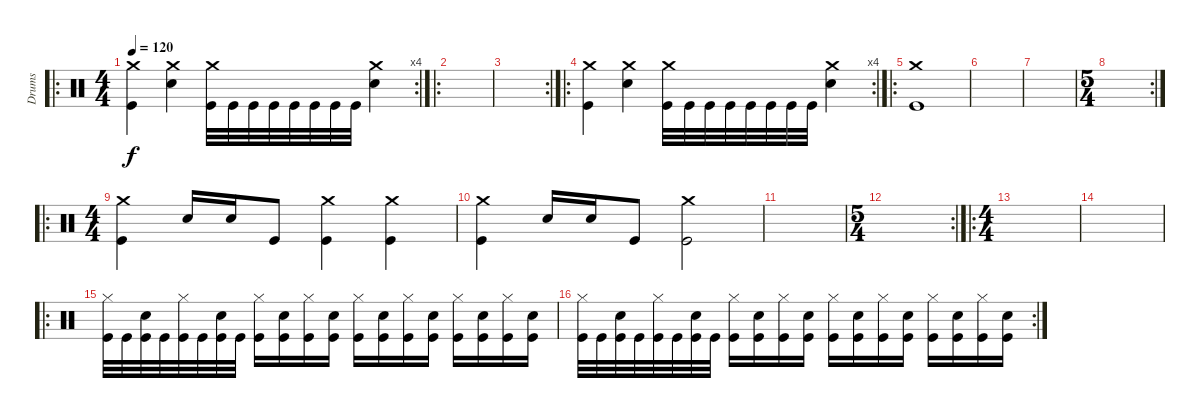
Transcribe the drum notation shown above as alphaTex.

\track ("Drums" "Drums") {instrument percussion}
\staff {score}
\articulation defaults
\ro
\rc 4
\ts (4 4)
\tempo 120
\clef neutral
\ks c
("Crash medium (hit)" "Kick (hit)").4{dy f} ("Crash medium (hit)" "Snare (hit) 2").4 ("Crash medium (hit)" "Kick (hit)").32 "Kick (hit)".32 "Kick (hit)".32 "Kick (hit)".32 "Kick (hit)".32 "Kick (hit)".32 "Kick (hit)".32 "Kick (hit)".32 ("Crash medium (hit)" "Snare (hit) 2").4 |
\ro
|
\rc 2
|
\ro
\rc 4
("Crash medium (hit)" "Kick (hit)").4 ("Crash medium (hit)" "Snare (hit) 2").4 ("Crash medium (hit)" "Kick (hit)").32 "Kick (hit)".32 "Kick (hit)".32 "Kick (hit)".32 "Kick (hit)".32 "Kick (hit)".32 "Kick (hit)".32 "Kick (hit)".32 ("Crash medium (hit)" "Snare (hit) 2").4 |
\ro
("Crash medium (hit)" "Kick (hit)").1 |
|
|
\rc 2
\ts (5 4)
|
\ro
\ts (4 4)
("Crash medium (hit)" "Kick (hit)").4 "Snare (hit) 2".16 "Snare (hit) 2".16 "Kick (hit)".8 ("Crash medium (hit)" "Kick (hit)").4 ("Crash medium (hit)" "Kick (hit)").4 |
("Crash medium (hit)" "Kick (hit)").4 "Snare (hit) 2".16 "Snare (hit) 2".16 "Kick (hit)".8 ("Crash medium (hit)" "Kick (hit)").2 |
|
\rc 2
\ts (5 4)
|
\ro
\ts (4 4)
|
|
\ro
("Hi-Hat (closed)" "Kick (hit)").32 "Kick (hit)".32 ("Snare (hit) 2" "Kick (hit)").32 "Kick (hit)".32 ("Hi-Hat (closed)" "Kick (hit)").32 "Kick (hit)".32 ("Snare (hit) 2" "Kick (hit)").32 "Kick (hit)".32 ("Hi-Hat (closed)" "Kick (hit)").16 ("Snare (hit) 2" "Kick (hit)").16 ("Hi-Hat (closed)" "Kick (hit)").16 ("Snare (hit) 2" "Kick (hit)").16 ("Hi-Hat (closed)" "Kick (hit)").16 ("Snare (hit) 2" "Kick (hit)").16 ("Hi-Hat (closed)" "Kick (hit)").16 ("Snare (hit) 2" "Kick (hit)").16 ("Hi-Hat (closed)" "Kick (hit)").16 ("Snare (hit) 2" "Kick (hit)").16 ("Hi-Hat (closed)" "Kick (hit)").16 ("Snare (hit) 2" "Kick (hit)").16 |
\rc 2
("Hi-Hat (closed)" "Kick (hit)").32 "Kick (hit)".32 ("Snare (hit) 2" "Kick (hit)").32 "Kick (hit)".32 ("Hi-Hat (closed)" "Kick (hit)").32 "Kick (hit)".32 ("Snare (hit) 2" "Kick (hit)").32 "Kick (hit)".32 ("Hi-Hat (closed)" "Kick (hit)").16 ("Snare (hit) 2" "Kick (hit)").16 ("Hi-Hat (closed)" "Kick (hit)").16 ("Snare (hit) 2" "Kick (hit)").16 ("Hi-Hat (closed)" "Kick (hit)").16 ("Snare (hit) 2" "Kick (hit)").16 ("Hi-Hat (closed)" "Kick (hit)").16 ("Snare (hit) 2" "Kick (hit)").16 ("Hi-Hat (closed)" "Kick (hit)").16 ("Snare (hit) 2" "Kick (hit)").16 ("Hi-Hat (closed)" "Kick (hit)").16 ("Snare (hit) 2" "Kick (hit)").16
